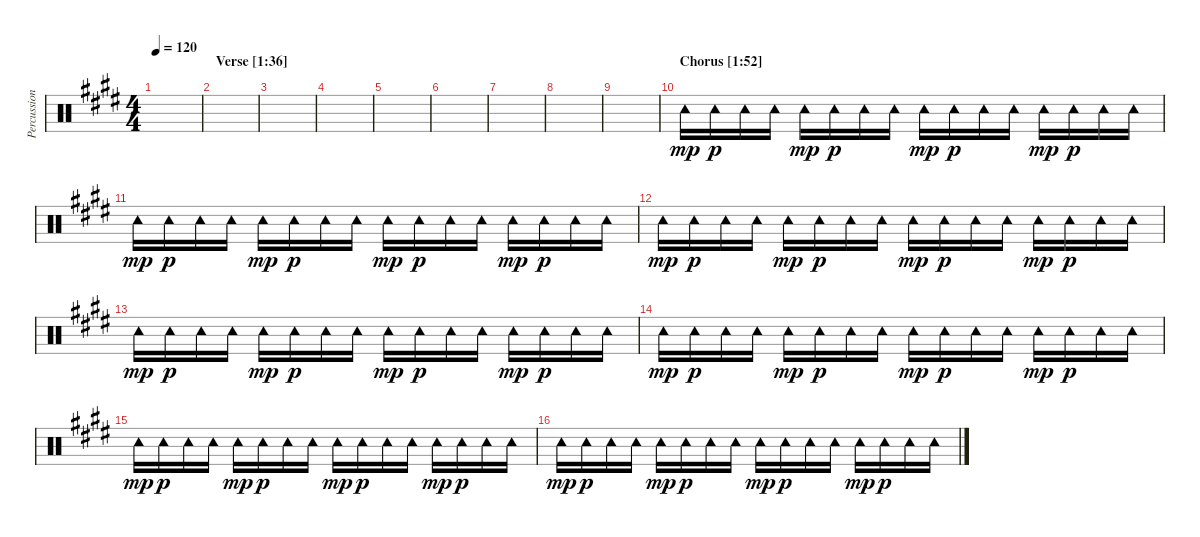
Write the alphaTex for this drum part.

\track ("Percussion" "Percussion") {instrument percussion}
\staff {score}
\articulation defaults
\ts (4 4)
\tempo 120
\clef neutral
\ks c#minor
|
\section ("" "Verse [1:36]")
|
|
|
|
|
|
|
|
\section ("" "Chorus [1:52]")
"Tambourine (hit)".16{dy mp} "Tambourine (hit)".16{dy p} "Tambourine (hit)".16 "Tambourine (hit)".16 "Tambourine (hit)".16{dy mp} "Tambourine (hit)".16{dy p} "Tambourine (hit)".16 "Tambourine (hit)".16 "Tambourine (hit)".16{dy mp} "Tambourine (hit)".16{dy p} "Tambourine (hit)".16 "Tambourine (hit)".16 "Tambourine (hit)".16{dy mp} "Tambourine (hit)".16{dy p} "Tambourine (hit)".16 "Tambourine (hit)".16 |
"Tambourine (hit)".16{dy mp} "Tambourine (hit)".16{dy p} "Tambourine (hit)".16 "Tambourine (hit)".16 "Tambourine (hit)".16{dy mp} "Tambourine (hit)".16{dy p} "Tambourine (hit)".16 "Tambourine (hit)".16 "Tambourine (hit)".16{dy mp} "Tambourine (hit)".16{dy p} "Tambourine (hit)".16 "Tambourine (hit)".16 "Tambourine (hit)".16{dy mp} "Tambourine (hit)".16{dy p} "Tambourine (hit)".16 "Tambourine (hit)".16 |
"Tambourine (hit)".16{dy mp} "Tambourine (hit)".16{dy p} "Tambourine (hit)".16 "Tambourine (hit)".16 "Tambourine (hit)".16{dy mp} "Tambourine (hit)".16{dy p} "Tambourine (hit)".16 "Tambourine (hit)".16 "Tambourine (hit)".16{dy mp} "Tambourine (hit)".16{dy p} "Tambourine (hit)".16 "Tambourine (hit)".16 "Tambourine (hit)".16{dy mp} "Tambourine (hit)".16{dy p} "Tambourine (hit)".16 "Tambourine (hit)".16 |
"Tambourine (hit)".16{dy mp} "Tambourine (hit)".16{dy p} "Tambourine (hit)".16 "Tambourine (hit)".16 "Tambourine (hit)".16{dy mp} "Tambourine (hit)".16{dy p} "Tambourine (hit)".16 "Tambourine (hit)".16 "Tambourine (hit)".16{dy mp} "Tambourine (hit)".16{dy p} "Tambourine (hit)".16 "Tambourine (hit)".16 "Tambourine (hit)".16{dy mp} "Tambourine (hit)".16{dy p} "Tambourine (hit)".16 "Tambourine (hit)".16 |
"Tambourine (hit)".16{dy mp} "Tambourine (hit)".16{dy p} "Tambourine (hit)".16 "Tambourine (hit)".16 "Tambourine (hit)".16{dy mp} "Tambourine (hit)".16{dy p} "Tambourine (hit)".16 "Tambourine (hit)".16 "Tambourine (hit)".16{dy mp} "Tambourine (hit)".16{dy p} "Tambourine (hit)".16 "Tambourine (hit)".16 "Tambourine (hit)".16{dy mp} "Tambourine (hit)".16{dy p} "Tambourine (hit)".16 "Tambourine (hit)".16 |
"Tambourine (hit)".16{dy mp} "Tambourine (hit)".16{dy p} "Tambourine (hit)".16 "Tambourine (hit)".16 "Tambourine (hit)".16{dy mp} "Tambourine (hit)".16{dy p} "Tambourine (hit)".16 "Tambourine (hit)".16 "Tambourine (hit)".16{dy mp} "Tambourine (hit)".16{dy p} "Tambourine (hit)".16 "Tambourine (hit)".16 "Tambourine (hit)".16{dy mp} "Tambourine (hit)".16{dy p} "Tambourine (hit)".16 "Tambourine (hit)".16 |
"Tambourine (hit)".16{dy mp} "Tambourine (hit)".16{dy p} "Tambourine (hit)".16 "Tambourine (hit)".16 "Tambourine (hit)".16{dy mp} "Tambourine (hit)".16{dy p} "Tambourine (hit)".16 "Tambourine (hit)".16 "Tambourine (hit)".16{dy mp} "Tambourine (hit)".16{dy p} "Tambourine (hit)".16 "Tambourine (hit)".16 "Tambourine (hit)".16{dy mp} "Tambourine (hit)".16{dy p} "Tambourine (hit)".16 "Tambourine (hit)".16
